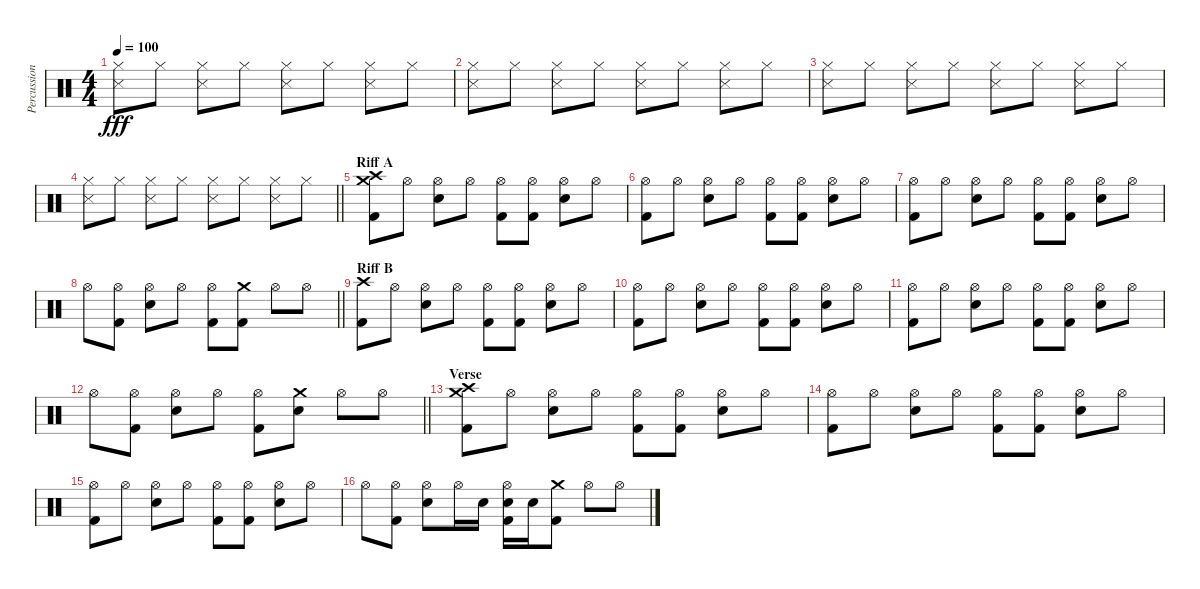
\track ("Percussion" "Percussion") {instrument percussion}
\staff {score}
\articulation defaults
\ts (4 4)
\tempo 100
\clef neutral
\ks c
("Hi-Hat (closed)" "Snare (side stick) 3").8{dy fff} "Hi-Hat (closed)".8 ("Hi-Hat (closed)" "Snare (side stick) 3").8 "Hi-Hat (closed)".8 ("Hi-Hat (closed)" "Snare (side stick) 3").8 "Hi-Hat (closed)".8 ("Hi-Hat (closed)" "Snare (side stick) 3").8 "Hi-Hat (closed)".8 |
("Hi-Hat (closed)" "Snare (side stick) 3").8 "Hi-Hat (closed)".8 ("Hi-Hat (closed)" "Snare (side stick) 3").8 "Hi-Hat (closed)".8 ("Hi-Hat (closed)" "Snare (side stick) 3").8 "Hi-Hat (closed)".8 ("Hi-Hat (closed)" "Snare (side stick) 3").8 "Hi-Hat (closed)".8 |
("Hi-Hat (closed)" "Snare (side stick) 3").8 "Hi-Hat (closed)".8 ("Hi-Hat (closed)" "Snare (side stick) 3").8 "Hi-Hat (closed)".8 ("Hi-Hat (closed)" "Snare (side stick) 3").8 "Hi-Hat (closed)".8 ("Hi-Hat (closed)" "Snare (side stick) 3").8 "Hi-Hat (closed)".8 |
\barLineRight lightlight
("Hi-Hat (closed)" "Snare (side stick) 3").8 "Hi-Hat (closed)".8 ("Hi-Hat (closed)" "Snare (side stick) 3").8 "Hi-Hat (closed)".8 ("Hi-Hat (closed)" "Snare (side stick) 3").8 "Hi-Hat (closed)".8 ("Hi-Hat (closed)" "Snare (side stick) 3").8 "Hi-Hat (closed)".8 |
\section ("" "Riff A")
("Crash medium (hit)" "Crash high (hit)" "Kick (hit) 2").8 "Hi-Hat (open)".8 ("Hi-Hat (open)" "Electric Snare (hit)").8 "Hi-Hat (open)".8 ("Hi-Hat (open)" "Kick (hit) 2").8 ("Hi-Hat (open)" "Kick (hit) 2").8 ("Hi-Hat (open)" "Electric Snare (hit)").8 "Hi-Hat (open)".8 |
("Hi-Hat (open)" "Kick (hit) 2").8 "Hi-Hat (open)".8 ("Hi-Hat (open)" "Electric Snare (hit)").8 "Hi-Hat (open)".8 ("Hi-Hat (open)" "Kick (hit) 2").8 ("Hi-Hat (open)" "Kick (hit) 2").8 ("Hi-Hat (open)" "Electric Snare (hit)").8 "Hi-Hat (open)".8 |
("Hi-Hat (open)" "Kick (hit) 2").8 "Hi-Hat (open)".8 ("Hi-Hat (open)" "Electric Snare (hit)").8 "Hi-Hat (open)".8 ("Hi-Hat (open)" "Kick (hit) 2").8 ("Hi-Hat (open)" "Kick (hit) 2").8 ("Hi-Hat (open)" "Electric Snare (hit)").8 "Hi-Hat (open)".8 |
\barLineRight lightlight "Hi-Hat (open)".8
("Hi-Hat (open)" "Kick (hit) 2").8 ("Hi-Hat (open)" "Electric Snare (hit)").8 "Hi-Hat (open)".8 ("Hi-Hat (open)" "Kick (hit) 2").8 ("Crash medium (hit)" "Kick (hit) 2").8 "Hi-Hat (open)".8 "Hi-Hat (open)".8 |
\section ("" "Riff B")
("Crash high (hit)" "Kick (hit) 2").8 "Hi-Hat (open)".8 ("Hi-Hat (open)" "Electric Snare (hit)").8 "Hi-Hat (open)".8 ("Hi-Hat (open)" "Kick (hit) 2").8 ("Hi-Hat (open)" "Kick (hit) 2").8 ("Hi-Hat (open)" "Electric Snare (hit)").8 "Hi-Hat (open)".8 |
("Hi-Hat (open)" "Kick (hit) 2").8 "Hi-Hat (open)".8 ("Hi-Hat (open)" "Electric Snare (hit)").8 "Hi-Hat (open)".8 ("Hi-Hat (open)" "Kick (hit) 2").8 ("Hi-Hat (open)" "Kick (hit) 2").8 ("Hi-Hat (open)" "Electric Snare (hit)").8 "Hi-Hat (open)".8 |
("Hi-Hat (open)" "Kick (hit) 2").8 "Hi-Hat (open)".8 ("Hi-Hat (open)" "Electric Snare (hit)").8 "Hi-Hat (open)".8 ("Hi-Hat (open)" "Kick (hit) 2").8 ("Hi-Hat (open)" "Kick (hit) 2").8 ("Hi-Hat (open)" "Electric Snare (hit)").8 "Hi-Hat (open)".8 |
\barLineRight lightlight "Hi-Hat (open)".8
("Hi-Hat (open)" "Kick (hit) 2").8 ("Hi-Hat (open)" "Electric Snare (hit)").8 "Hi-Hat (open)".8 ("Hi-Hat (open)" "Kick (hit) 2").8 ("Crash medium (hit)" "Electric Snare (hit)").8 "Hi-Hat (open)".8 "Hi-Hat (open)".8 |
\section ("" "Verse")
("Crash high (hit)" "Crash medium (hit)" "Kick (hit) 2").8 "Hi-Hat (open)".8 ("Hi-Hat (open)" "Electric Snare (hit)").8 "Hi-Hat (open)".8 ("Hi-Hat (open)" "Kick (hit) 2").8 ("Hi-Hat (open)" "Kick (hit) 2").8 ("Hi-Hat (open)" "Electric Snare (hit)").8 "Hi-Hat (open)".8 |
("Hi-Hat (open)" "Kick (hit) 2").8 "Hi-Hat (open)".8 ("Hi-Hat (open)" "Electric Snare (hit)").8 "Hi-Hat (open)".8 ("Hi-Hat (open)" "Kick (hit) 2").8 ("Hi-Hat (open)" "Kick (hit) 2").8 ("Hi-Hat (open)" "Electric Snare (hit)").8 "Hi-Hat (open)".8 |
("Hi-Hat (open)" "Kick (hit) 2").8 "Hi-Hat (open)".8 ("Hi-Hat (open)" "Electric Snare (hit)").8 "Hi-Hat (open)".8 ("Hi-Hat (open)" "Kick (hit) 2").8 ("Hi-Hat (open)" "Kick (hit) 2").8 ("Hi-Hat (open)" "Electric Snare (hit)").8 "Hi-Hat (open)".8 |
"Hi-Hat (open)".8 ("Hi-Hat (open)" "Kick (hit) 2").8 ("Hi-Hat (open)" "Electric Snare (hit)").8 "Hi-Hat (open)".16 "Electric Snare (hit)".16 ("Hi-Hat (open)" "Electric Snare (hit)" "Kick (hit) 2").16 "Electric Snare (hit)".16 ("Crash medium (hit)" "Kick (hit) 2").8 "Hi-Hat (open)".8 "Hi-Hat (open)".8
